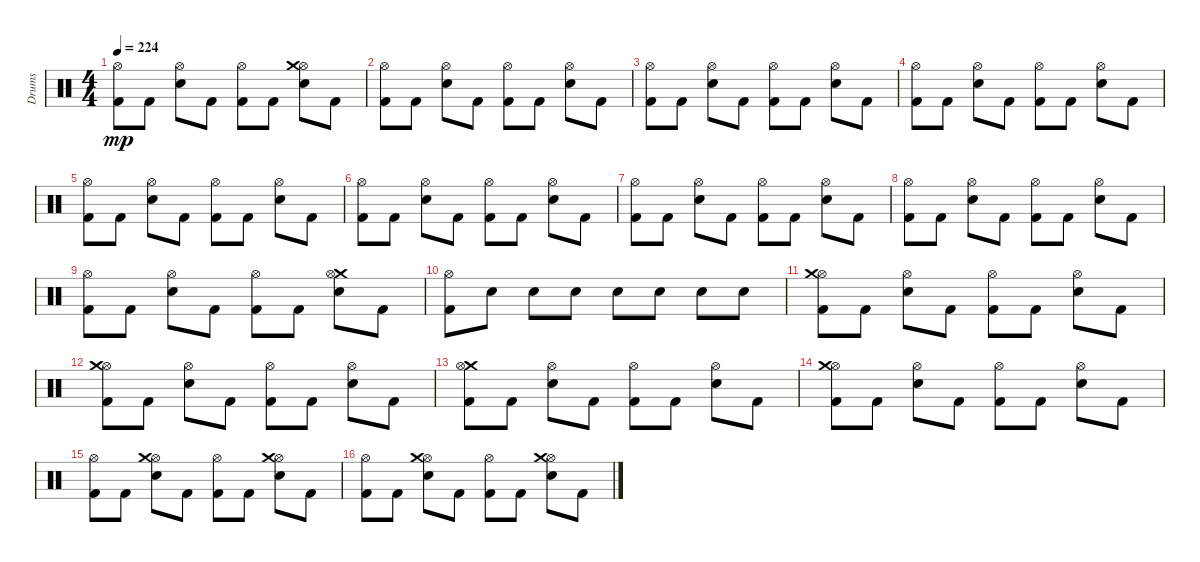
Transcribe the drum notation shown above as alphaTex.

\track ("Drums" "Drums") {instrument percussion}
\staff {score}
\articulation defaults
\ts (4 4)
\tempo 224
\clef neutral
\ks c
("Hi-Hat (open)" "Kick (hit) 2").8{dy mp} "Kick (hit) 2".8 ("Electric Snare (hit)" "Hi-Hat (open)").8 "Kick (hit) 2".8 ("Hi-Hat (open)" "Kick (hit) 2").8 "Kick (hit) 2".8 ("Hi-Hat (open)" "Crash medium (hit)" "Electric Snare (hit)").8 "Kick (hit) 2".8 |
("Kick (hit) 2" "Hi-Hat (open)").8 "Kick (hit) 2".8 ("Hi-Hat (open)" "Electric Snare (hit)").8 "Kick (hit) 2".8 ("Kick (hit) 2" "Hi-Hat (open)").8 "Kick (hit) 2".8 ("Electric Snare (hit)" "Hi-Hat (open)").8 "Kick (hit) 2".8 |
("Kick (hit) 2" "Hi-Hat (open)").8 "Kick (hit) 2".8 ("Electric Snare (hit)" "Hi-Hat (open)").8 "Kick (hit) 2".8 ("Kick (hit) 2" "Hi-Hat (open)").8 "Kick (hit) 2".8 ("Electric Snare (hit)" "Hi-Hat (open)").8 "Kick (hit) 2".8 |
("Kick (hit) 2" "Hi-Hat (open)").8 "Kick (hit) 2".8 ("Hi-Hat (open)" "Electric Snare (hit)").8 "Kick (hit) 2".8 ("Hi-Hat (open)" "Kick (hit) 2").8 "Kick (hit) 2".8 ("Hi-Hat (open)" "Electric Snare (hit)").8 "Kick (hit) 2".8 |
("Hi-Hat (open)" "Kick (hit) 2").8 "Kick (hit) 2".8 ("Electric Snare (hit)" "Hi-Hat (open)").8 "Kick (hit) 2".8 ("Kick (hit) 2" "Hi-Hat (open)").8 "Kick (hit) 2".8 ("Hi-Hat (open)" "Electric Snare (hit)").8 "Kick (hit) 2".8 |
("Hi-Hat (open)" "Kick (hit) 2").8 "Kick (hit) 2".8 ("Electric Snare (hit)" "Hi-Hat (open)").8 "Kick (hit) 2".8 ("Kick (hit) 2" "Hi-Hat (open)").8 "Kick (hit) 2".8 ("Hi-Hat (open)" "Electric Snare (hit)").8 "Kick (hit) 2".8 |
("Hi-Hat (open)" "Kick (hit) 2").8 "Kick (hit) 2".8 ("Hi-Hat (open)" "Electric Snare (hit)").8 "Kick (hit) 2".8 ("Kick (hit) 2" "Hi-Hat (open)").8 "Kick (hit) 2".8 ("Hi-Hat (open)" "Electric Snare (hit)").8 "Kick (hit) 2".8 |
("Hi-Hat (open)" "Kick (hit) 2").8 "Kick (hit) 2".8 ("Electric Snare (hit)" "Hi-Hat (open)").8 "Kick (hit) 2".8 ("Kick (hit) 2" "Hi-Hat (open)").8 "Kick (hit) 2".8 ("Electric Snare (hit)" "Hi-Hat (open)").8 "Kick (hit) 2".8 |
("Kick (hit) 2" "Hi-Hat (open)").8 "Kick (hit) 2".8 ("Electric Snare (hit)" "Hi-Hat (open)").8 "Kick (hit) 2".8 ("Hi-Hat (open)" "Kick (hit) 2").8 "Kick (hit) 2".8 ("Crash medium (hit)" "Electric Snare (hit)" "Hi-Hat (open)").8 "Kick (hit) 2".8 |
("Kick (hit) 2" "Hi-Hat (open)").8 "Electric Snare (hit)".8 "Electric Snare (hit)".8 "Electric Snare (hit)".8 "Electric Snare (hit)".8 "Electric Snare (hit)".8 "Electric Snare (hit)".8 "Electric Snare (hit)".8 |
("Hi-Hat (open)" "Kick (hit) 2" "Crash medium (hit)").8 "Kick (hit) 2".8 ("Hi-Hat (open)" "Electric Snare (hit)").8 "Kick (hit) 2".8 ("Kick (hit) 2" "Hi-Hat (open)").8 "Kick (hit) 2".8 ("Electric Snare (hit)" "Hi-Hat (open)").8 "Kick (hit) 2".8 |
("Hi-Hat (open)" "Kick (hit) 2" "Crash medium (hit)").8 "Kick (hit) 2".8 ("Hi-Hat (open)" "Electric Snare (hit)").8 "Kick (hit) 2".8 ("Kick (hit) 2" "Hi-Hat (open)").8 "Kick (hit) 2".8 ("Electric Snare (hit)" "Hi-Hat (open)").8 "Kick (hit) 2".8 |
("Crash medium (hit)" "Kick (hit) 2" "Hi-Hat (open)").8 "Kick (hit) 2".8 ("Electric Snare (hit)" "Hi-Hat (open)").8 "Kick (hit) 2".8 ("Kick (hit) 2" "Hi-Hat (open)").8 "Kick (hit) 2".8 ("Hi-Hat (open)" "Electric Snare (hit)").8 "Kick (hit) 2".8 |
("Hi-Hat (open)" "Kick (hit) 2" "Crash medium (hit)").8 "Kick (hit) 2".8 ("Hi-Hat (open)" "Electric Snare (hit)").8 "Kick (hit) 2".8 ("Hi-Hat (open)" "Kick (hit) 2").8 "Kick (hit) 2".8 ("Electric Snare (hit)" "Hi-Hat (open)").8 "Kick (hit) 2".8 |
("Hi-Hat (open)" "Kick (hit) 2").8 "Kick (hit) 2".8 ("Hi-Hat (open)" "Electric Snare (hit)" "Crash medium (hit)").8 "Kick (hit) 2".8 ("Hi-Hat (open)" "Kick (hit) 2").8 "Kick (hit) 2".8 ("Hi-Hat (open)" "Electric Snare (hit)" "Crash medium (hit)").8 "Kick (hit) 2".8 |
("Hi-Hat (open)" "Kick (hit) 2").8 "Kick (hit) 2".8 ("Hi-Hat (open)" "Crash medium (hit)" "Electric Snare (hit)").8 "Kick (hit) 2".8 ("Kick (hit) 2" "Hi-Hat (open)").8 "Kick (hit) 2".8 ("Hi-Hat (open)" "Electric Snare (hit)" "Crash medium (hit)").8 "Kick (hit) 2".8
